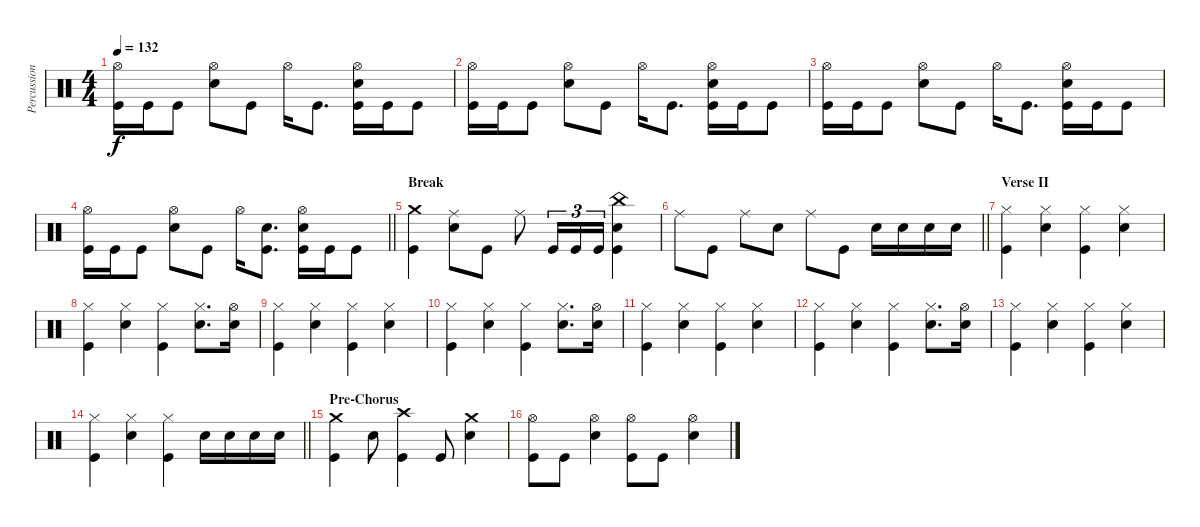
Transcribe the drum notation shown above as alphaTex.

\track ("Percussion" "Percussion") {instrument percussion}
\staff {score}
\articulation defaults
\ts (4 4)
\tempo 132
\clef neutral
\ks c
("Hi-Hat (open)" "Kick (hit)").16{dy f} "Kick (hit)".16 "Kick (hit)".8 ("Hi-Hat (open)" "Electric Snare (hit)").8 "Kick (hit)".8 "Hi-Hat (open)".16 "Kick (hit)".8{d} ("Hi-Hat (open)" "Electric Snare (hit)" "Kick (hit)").16 "Kick (hit)".16 "Kick (hit)".8 |
("Hi-Hat (open)" "Kick (hit)").16 "Kick (hit)".16 "Kick (hit)".8 ("Hi-Hat (open)" "Electric Snare (hit)").8 "Kick (hit)".8 "Hi-Hat (open)".16 "Kick (hit)".8{d} ("Hi-Hat (open)" "Electric Snare (hit)" "Kick (hit)").16 "Kick (hit)".16 "Kick (hit)".8 |
("Hi-Hat (open)" "Kick (hit)").16 "Kick (hit)".16 "Kick (hit)".8 ("Hi-Hat (open)" "Electric Snare (hit)").8 "Kick (hit)".8 "Hi-Hat (open)".16 "Kick (hit)".8{d} ("Hi-Hat (open)" "Electric Snare (hit)" "Kick (hit)").16 "Kick (hit)".16 "Kick (hit)".8 |
\barLineRight lightlight
("Hi-Hat (open)" "Kick (hit)").16 "Kick (hit)".16 "Kick (hit)".8 ("Hi-Hat (open)" "Electric Snare (hit)").8 "Kick (hit)".8 "Hi-Hat (open)".16 ("Electric Snare (hit)" "Kick (hit)").8{d} ("Hi-Hat (open)" "Electric Snare (hit)" "Kick (hit)").16 "Kick (hit)".16 "Kick (hit)".8 |
\section ("" "Break")
("Crash medium (hit)" "Kick (hit)").4 ("Ride (middle)" "Electric Snare (hit)").8 "Kick (hit)".8 "Ride (middle)".8 "Kick (hit)".16{tu (3 2)} "Kick (hit)".16{tu (3 2)} "Kick (hit)".16{tu (3 2)} ("China (hit)" "Electric Snare (hit)" "Kick (hit)").4 |
\barLineRight lightlight "Ride (middle)".8 "Kick (hit)".8 "Ride (middle)".8 "Electric Snare (hit)".8 "Ride (middle)".8 "Kick (hit)".8 "Electric Snare (hit)".16 "Electric Snare (hit)".16 "Electric Snare (hit)".16 "Electric Snare (hit)".16
|
\section ("" "Verse II")
("Hi-Hat (closed)" "Kick (hit)").4 ("Hi-Hat (closed)" "Electric Snare (hit)").4 ("Hi-Hat (closed)" "Kick (hit)").4 ("Hi-Hat (closed)" "Electric Snare (hit)").4 |
("Hi-Hat (closed)" "Kick (hit)").4 ("Hi-Hat (closed)" "Electric Snare (hit)").4 ("Hi-Hat (closed)" "Kick (hit)").4 ("Hi-Hat (closed)" "Electric Snare (hit)").8{d} ("Hi-Hat (open)" "Electric Snare (hit)").16 |
("Hi-Hat (closed)" "Kick (hit)").4 ("Hi-Hat (closed)" "Electric Snare (hit)").4 ("Hi-Hat (closed)" "Kick (hit)").4 ("Hi-Hat (closed)" "Electric Snare (hit)").4 |
("Hi-Hat (closed)" "Kick (hit)").4 ("Hi-Hat (closed)" "Electric Snare (hit)").4 ("Hi-Hat (closed)" "Kick (hit)").4 ("Hi-Hat (closed)" "Electric Snare (hit)").8{d} ("Hi-Hat (open)" "Electric Snare (hit)").16 |
("Hi-Hat (closed)" "Kick (hit)").4 ("Hi-Hat (closed)" "Electric Snare (hit)").4 ("Hi-Hat (closed)" "Kick (hit)").4 ("Hi-Hat (closed)" "Electric Snare (hit)").4 |
("Hi-Hat (closed)" "Kick (hit)").4 ("Hi-Hat (closed)" "Electric Snare (hit)").4 ("Hi-Hat (closed)" "Kick (hit)").4 ("Hi-Hat (closed)" "Electric Snare (hit)").8{d} ("Hi-Hat (open)" "Electric Snare (hit)").16 |
("Hi-Hat (closed)" "Kick (hit)").4 ("Hi-Hat (closed)" "Electric Snare (hit)").4 ("Hi-Hat (closed)" "Kick (hit)").4 ("Hi-Hat (closed)" "Electric Snare (hit)").4 |
\barLineRight lightlight
("Hi-Hat (closed)" "Kick (hit)").4 ("Hi-Hat (closed)" "Electric Snare (hit)").4 ("Hi-Hat (closed)" "Kick (hit)").4 "Electric Snare (hit)".16 "Electric Snare (hit)".16 "Electric Snare (hit)".16 "Electric Snare (hit)".16 |
\section ("" "Pre-Chorus")
("Crash medium (hit)" "Kick (hit)").4 "Electric Snare (hit)".8 ("Crash high (hit)" "Kick (hit)").4 "Kick (hit)".8 ("Crash medium (hit)" "Electric Snare (hit)").4 |
("Hi-Hat (open)" "Kick (hit)").8 "Kick (hit)".8 ("Hi-Hat (open)" "Electric Snare (hit)").4 ("Hi-Hat (open)" "Kick (hit)").8 "Kick (hit)".8 ("Hi-Hat (open)" "Electric Snare (hit)").4
